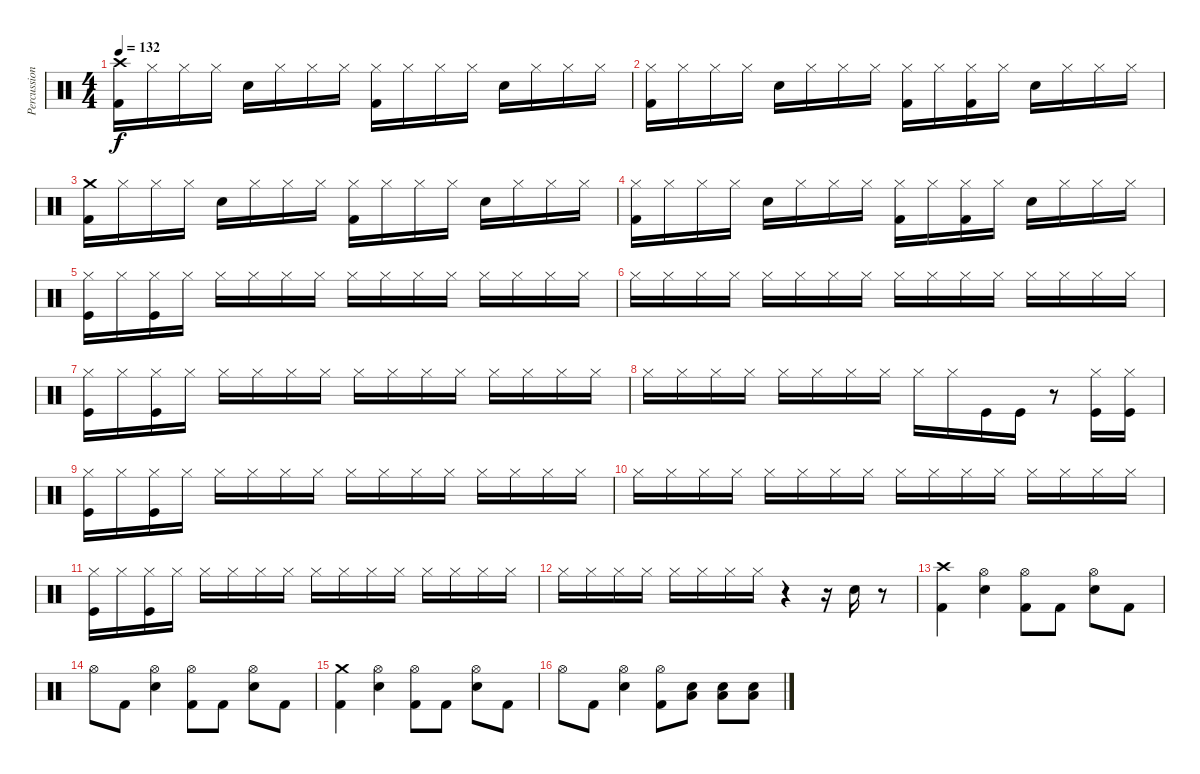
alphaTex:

\track ("Percussion" "Percussion") {instrument percussion}
\staff {score}
\articulation defaults
\ts (4 4)
\tempo 132
\clef neutral
\ks c
("Crash high (hit)" "Kick (hit) 2").16{dy f} "Hi-Hat (closed)".16 "Hi-Hat (closed)".16 "Hi-Hat (closed)".16 "Electric Snare (hit)".16 "Hi-Hat (closed)".16 "Hi-Hat (closed)".16 "Hi-Hat (closed)".16 ("Hi-Hat (closed)" "Kick (hit) 2").16 "Hi-Hat (closed)".16 "Hi-Hat (closed)".16 "Hi-Hat (closed)".16 "Electric Snare (hit)".16 "Hi-Hat (closed)".16 "Hi-Hat (closed)".16 "Hi-Hat (closed)".16 |
("Hi-Hat (closed)" "Kick (hit) 2").16 "Hi-Hat (closed)".16 "Hi-Hat (closed)".16 "Hi-Hat (closed)".16 "Electric Snare (hit)".16 "Hi-Hat (closed)".16 "Hi-Hat (closed)".16 "Hi-Hat (closed)".16 ("Hi-Hat (closed)" "Kick (hit) 2").16 "Hi-Hat (closed)".16 ("Hi-Hat (closed)" "Kick (hit) 2").16 "Hi-Hat (closed)".16 "Electric Snare (hit)".16 "Hi-Hat (closed)".16 "Hi-Hat (closed)".16 "Hi-Hat (closed)".16 |
("Crash medium (hit)" "Kick (hit) 2").16 "Hi-Hat (closed)".16 "Hi-Hat (closed)".16 "Hi-Hat (closed)".16 "Electric Snare (hit)".16 "Hi-Hat (closed)".16 "Hi-Hat (closed)".16 "Hi-Hat (closed)".16 ("Hi-Hat (closed)" "Kick (hit) 2").16 "Hi-Hat (closed)".16 "Hi-Hat (closed)".16 "Hi-Hat (closed)".16 "Electric Snare (hit)".16 "Hi-Hat (closed)".16 "Hi-Hat (closed)".16 "Hi-Hat (closed)".16 |
("Hi-Hat (closed)" "Kick (hit) 2").16 "Hi-Hat (closed)".16 "Hi-Hat (closed)".16 "Hi-Hat (closed)".16 "Electric Snare (hit)".16 "Hi-Hat (closed)".16 "Hi-Hat (closed)".16 "Hi-Hat (closed)".16 ("Hi-Hat (closed)" "Kick (hit) 2").16 "Hi-Hat (closed)".16 ("Hi-Hat (closed)" "Kick (hit) 2").16 "Hi-Hat (closed)".16 "Electric Snare (hit)".16 "Hi-Hat (closed)".16 "Hi-Hat (closed)".16 "Hi-Hat (closed)".16 |
("Hi-Hat (closed)" "Kick (hit)").16 "Hi-Hat (closed)".16 ("Hi-Hat (closed)" "Kick (hit)").16 "Hi-Hat (closed)".16 "Hi-Hat (closed)".16 "Hi-Hat (closed)".16 "Hi-Hat (closed)".16 "Hi-Hat (closed)".16 "Hi-Hat (closed)".16 "Hi-Hat (closed)".16 "Hi-Hat (closed)".16 "Hi-Hat (closed)".16 "Hi-Hat (closed)".16 "Hi-Hat (closed)".16 "Hi-Hat (closed)".16 "Hi-Hat (closed)".16 |
"Hi-Hat (closed)".16 "Hi-Hat (closed)".16 "Hi-Hat (closed)".16 "Hi-Hat (closed)".16 "Hi-Hat (closed)".16 "Hi-Hat (closed)".16 "Hi-Hat (closed)".16 "Hi-Hat (closed)".16 "Hi-Hat (closed)".16 "Hi-Hat (closed)".16 "Hi-Hat (closed)".16 "Hi-Hat (closed)".16 "Hi-Hat (closed)".16 "Hi-Hat (closed)".16 "Hi-Hat (closed)".16 "Hi-Hat (closed)".16 |
("Hi-Hat (closed)" "Kick (hit)").16 "Hi-Hat (closed)".16 ("Hi-Hat (closed)" "Kick (hit)").16 "Hi-Hat (closed)".16 "Hi-Hat (closed)".16 "Hi-Hat (closed)".16 "Hi-Hat (closed)".16 "Hi-Hat (closed)".16 "Hi-Hat (closed)".16 "Hi-Hat (closed)".16 "Hi-Hat (closed)".16 "Hi-Hat (closed)".16 "Hi-Hat (closed)".16 "Hi-Hat (closed)".16 "Hi-Hat (closed)".16 "Hi-Hat (closed)".16 |
"Hi-Hat (closed)".16 "Hi-Hat (closed)".16 "Hi-Hat (closed)".16 "Hi-Hat (closed)".16 "Hi-Hat (closed)".16 "Hi-Hat (closed)".16 "Hi-Hat (closed)".16 "Hi-Hat (closed)".16 "Hi-Hat (closed)".16 "Hi-Hat (closed)".16 "Kick (hit)".16 "Kick (hit)".16 r.8 ("Hi-Hat (closed)" "Kick (hit)").16 ("Hi-Hat (closed)" "Kick (hit)").16 |
("Hi-Hat (closed)" "Kick (hit)").16 "Hi-Hat (closed)".16 ("Hi-Hat (closed)" "Kick (hit)").16 "Hi-Hat (closed)".16 "Hi-Hat (closed)".16 "Hi-Hat (closed)".16 "Hi-Hat (closed)".16 "Hi-Hat (closed)".16 "Hi-Hat (closed)".16 "Hi-Hat (closed)".16 "Hi-Hat (closed)".16 "Hi-Hat (closed)".16 "Hi-Hat (closed)".16 "Hi-Hat (closed)".16 "Hi-Hat (closed)".16 "Hi-Hat (closed)".16 |
"Hi-Hat (closed)".16 "Hi-Hat (closed)".16 "Hi-Hat (closed)".16 "Hi-Hat (closed)".16 "Hi-Hat (closed)".16 "Hi-Hat (closed)".16 "Hi-Hat (closed)".16 "Hi-Hat (closed)".16 "Hi-Hat (closed)".16 "Hi-Hat (closed)".16 "Hi-Hat (closed)".16 "Hi-Hat (closed)".16 "Hi-Hat (closed)".16 "Hi-Hat (closed)".16 "Hi-Hat (closed)".16 "Hi-Hat (closed)".16 |
("Hi-Hat (closed)" "Kick (hit)").16 "Hi-Hat (closed)".16 ("Hi-Hat (closed)" "Kick (hit)").16 "Hi-Hat (closed)".16 "Hi-Hat (closed)".16 "Hi-Hat (closed)".16 "Hi-Hat (closed)".16 "Hi-Hat (closed)".16 "Hi-Hat (closed)".16 "Hi-Hat (closed)".16 "Hi-Hat (closed)".16 "Hi-Hat (closed)".16 "Hi-Hat (closed)".16 "Hi-Hat (closed)".16 "Hi-Hat (closed)".16 "Hi-Hat (closed)".16 |
"Hi-Hat (closed)".16 "Hi-Hat (closed)".16 "Hi-Hat (closed)".16 "Hi-Hat (closed)".16 "Hi-Hat (closed)".16 "Hi-Hat (closed)".16 "Hi-Hat (closed)".16 "Hi-Hat (closed)".16 r.4 r.16 "Hand Clap (hit)".16 r.8 |
("Crash high (hit)" "Kick (hit) 2").4 ("Hi-Hat (open)" "Electric Snare (hit)").4 ("Hi-Hat (open)" "Kick (hit) 2").8 "Kick (hit) 2".8 ("Hi-Hat (open)" "Electric Snare (hit)").8 "Kick (hit) 2".8 |
"Hi-Hat (open)".8 "Kick (hit) 2".8 ("Hi-Hat (open)" "Electric Snare (hit)").4 ("Hi-Hat (open)" "Kick (hit) 2").8 "Kick (hit) 2".8 ("Hi-Hat (open)" "Electric Snare (hit)").8 "Kick (hit) 2".8 |
("Crash medium (hit)" "Kick (hit) 2").4 ("Hi-Hat (open)" "Electric Snare (hit)").4 ("Hi-Hat (open)" "Kick (hit) 2").8 "Kick (hit) 2".8 ("Hi-Hat (open)" "Electric Snare (hit)").8 "Kick (hit) 2".8 |
"Hi-Hat (open)".8 "Kick (hit) 2".8 ("Hi-Hat (open)" "Electric Snare (hit)").4 ("Hi-Hat (open)" "Kick (hit) 2").8 ("Electric Snare (hit)" "Low Floor Tom (hit)").8 ("Electric Snare (hit)" "Low Floor Tom (hit)").8 ("Electric Snare (hit)" "Low Floor Tom (hit)").8
